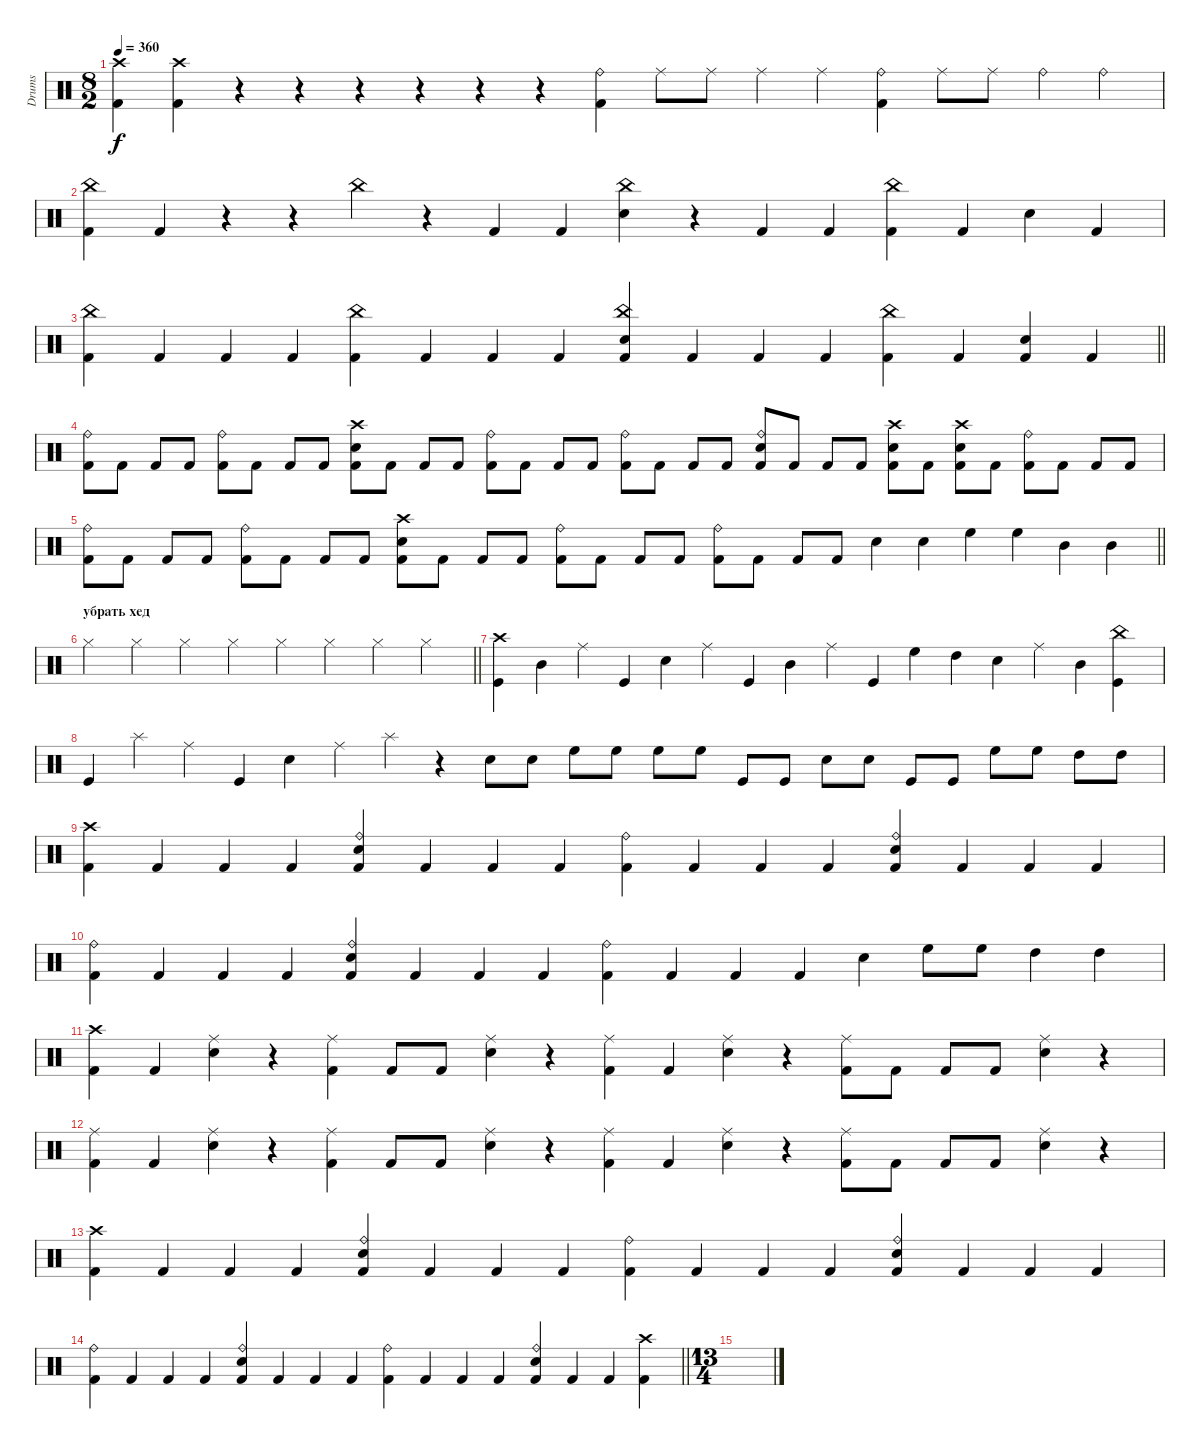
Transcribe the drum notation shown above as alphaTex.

\track ("Drums" "Drums") {mute instrument percussion}
\staff {score}
\articulation defaults
\ts (8 2)
\tempo 360
\clef neutral
\ks c
("Crash high (hit)" "Kick (hit) 2").4{dy f} ("Crash high (hit)" "Kick (hit) 2").4 r.4 r.4 r.4 r.4 r.4 r.4 ("Ride (bell)" "Kick (hit) 2").4 "Ride (middle)".8 "Ride (middle)".8 "Ride (middle)".4 "Ride (middle)".4 ("Ride (bell)" "Kick (hit) 2").4 "Ride (middle)".8 "Ride (middle)".8 "Ride (bell)".4 "Ride (bell)".4 |
("Kick (hit) 2" "China (hit)").4 "Kick (hit) 2".4 r.4 r.4 "China (hit)".4 r.4 "Kick (hit) 2".4 "Kick (hit) 2".4 ("Snare (hit) 2" "China (hit)").4 r.4 "Kick (hit) 2".4 "Kick (hit) 2".4 ("Kick (hit) 2" "China (hit)").4 "Kick (hit) 2".4 "Snare (hit) 2".4 "Kick (hit) 2".4 |
\barLineRight lightlight
("Kick (hit) 2" "China (hit)").4 "Kick (hit) 2".4 "Kick (hit) 2".4 "Kick (hit) 2".4 ("Kick (hit) 2" "China (hit)").4 "Kick (hit) 2".4 "Kick (hit) 2".4 "Kick (hit) 2".4 ("Kick (hit) 2" "Snare (hit) 2" "China (hit)").4 "Kick (hit) 2".4 "Kick (hit) 2".4 "Kick (hit) 2".4 ("Kick (hit) 2" "China (hit)").4 "Kick (hit) 2".4 ("Kick (hit) 2" "Snare (hit) 2").4 "Kick (hit) 2".4 |
("Ride (bell)" "Kick (hit) 2").8 "Kick (hit) 2".8 "Kick (hit) 2".8 "Kick (hit) 2".8 ("Ride (bell)" "Kick (hit) 2").8 "Kick (hit) 2".8 "Kick (hit) 2".8 "Kick (hit) 2".8 ("Crash high (hit)" "Snare (hit) 2" "Kick (hit) 2").8 "Kick (hit) 2".8 "Kick (hit) 2".8 "Kick (hit) 2".8 ("Ride (bell)" "Kick (hit) 2").8 "Kick (hit) 2".8 "Kick (hit) 2".8 "Kick (hit) 2".8 ("Ride (bell)" "Kick (hit) 2").8 "Kick (hit) 2".8 "Kick (hit) 2".8 "Kick (hit) 2".8 ("Ride (bell)" "Snare (hit) 2" "Kick (hit) 2").8 "Kick (hit) 2".8 "Kick (hit) 2".8 "Kick (hit) 2".8 ("Crash high (hit)" "Snare (hit) 2" "Kick (hit) 2").8 "Kick (hit) 2".8 ("Crash high (hit)" "Snare (hit) 2" "Kick (hit) 2").8 "Kick (hit) 2".8 ("Ride (bell)" "Kick (hit) 2").8 "Kick (hit) 2".8 "Kick (hit) 2".8 "Kick (hit) 2".8 |
\barLineRight lightlight
("Ride (bell)" "Kick (hit) 2").8 "Kick (hit) 2".8 "Kick (hit) 2".8 "Kick (hit) 2".8 ("Ride (bell)" "Kick (hit) 2").8 "Kick (hit) 2".8 "Kick (hit) 2".8 "Kick (hit) 2".8 ("Crash high (hit)" "Snare (hit) 2" "Kick (hit) 2").8 "Kick (hit) 2".8 "Kick (hit) 2".8 "Kick (hit) 2".8 ("Ride (bell)" "Kick (hit) 2").8 "Kick (hit) 2".8 "Kick (hit) 2".8 "Kick (hit) 2".8 ("Ride (bell)" "Kick (hit) 2").8 "Kick (hit) 2".8 "Kick (hit) 2".8 "Kick (hit) 2".8 "Snare (hit) 2".4 "Snare (hit) 2".4 "High Floor Tom (hit)".4 "High Floor Tom (hit)".4 "Mid Tom (hit)".4 "Mid Tom (hit)".4 |
\section ("" "убрать хед")
\barLineRight lightlight "Hi-Hat (closed)".2 "Hi-Hat (closed)".2 "Hi-Hat (closed)".2 "Hi-Hat (closed)".2 "Hi-Hat (closed)".2 "Hi-Hat (closed)".2 "Hi-Hat (closed)".2 "Hi-Hat (closed)".2
|
\section ("" "")
("Kick (hit)" "Crash high (hit)").4 "Mid Tom (hit)".4 "Ride (middle)".4 "Kick (hit)".4 "Snare (hit) 2".4 "Ride (middle)".4 "Kick (hit)".4 "Mid Tom (hit)".4 "Ride (middle)".4 "Kick (hit)".4 "High Floor Tom (hit)".4 "High Tom (hit)".4 "Snare (hit) 2".4 "Ride (middle)".4 "Mid Tom (hit)".4 ("China (hit)" "Kick (hit)").4 |
"Kick (hit)".4 "Splash (hit)".4 "Ride (middle)".4 "Kick (hit)".4 "Snare (hit) 2".4 "Ride (middle)".4 "Splash (hit)".4 r.4 "Snare (hit) 2".8 "Snare (hit) 2".8 "High Floor Tom (hit)".8 "High Floor Tom (hit)".8 "High Floor Tom (hit)".8 "High Floor Tom (hit)".8 "Kick (hit)".8 "Kick (hit)".8 "Snare (hit) 2".8 "Snare (hit) 2".8 "Kick (hit)".8 "Kick (hit)".8 "High Floor Tom (hit)".8 "High Floor Tom (hit)".8 "High Tom (hit)".8 "High Tom (hit)".8 |
("Crash high (hit)" "Kick (hit) 2").4 "Kick (hit) 2".4 "Kick (hit) 2".4 "Kick (hit) 2".4 ("Ride (bell)" "Snare (hit) 2" "Kick (hit) 2").4 "Kick (hit) 2".4 "Kick (hit) 2".4 "Kick (hit) 2".4 ("Ride (bell)" "Kick (hit) 2").4 "Kick (hit) 2".4 "Kick (hit) 2".4 "Kick (hit) 2".4 ("Ride (bell)" "Snare (hit) 2" "Kick (hit) 2").4 "Kick (hit) 2".4 "Kick (hit) 2".4 "Kick (hit) 2".4 |
("Ride (bell)" "Kick (hit) 2").4 "Kick (hit) 2".4 "Kick (hit) 2".4 "Kick (hit) 2".4 ("Ride (bell)" "Snare (hit) 2" "Kick (hit) 2").4 "Kick (hit) 2".4 "Kick (hit) 2".4 "Kick (hit) 2".4 ("Ride (bell)" "Kick (hit) 2").4 "Kick (hit) 2".4 "Kick (hit) 2".4 "Kick (hit) 2".4 "Snare (hit) 2".4 "High Floor Tom (hit)".8 "High Floor Tom (hit)".8 "High Tom (hit)".4 "High Tom (hit)".4 |
("Crash high (hit)" "Kick (hit) 2").4 "Kick (hit) 2".4 ("Ride (middle)" "Snare (hit) 2").4 r.4 ("Ride (middle)" "Kick (hit) 2").4 "Kick (hit) 2".8 "Kick (hit) 2".8 ("Ride (middle)" "Snare (hit) 2").4 r.4 ("Ride (middle)" "Kick (hit) 2").4 "Kick (hit) 2".4 ("Ride (middle)" "Snare (hit) 2").4 r.4 ("Ride (middle)" "Kick (hit) 2").8 "Kick (hit) 2".8 "Kick (hit) 2".8 "Kick (hit) 2".8 ("Ride (middle)" "Snare (hit) 2").4 r.4 |
("Ride (middle)" "Kick (hit) 2").4 "Kick (hit) 2".4 ("Ride (middle)" "Snare (hit) 2").4 r.4 ("Ride (middle)" "Kick (hit) 2").4 "Kick (hit) 2".8 "Kick (hit) 2".8 ("Ride (middle)" "Snare (hit) 2").4 r.4 ("Ride (middle)" "Kick (hit) 2").4 "Kick (hit) 2".4 ("Ride (middle)" "Snare (hit) 2").4 r.4 ("Ride (middle)" "Kick (hit) 2").8 "Kick (hit) 2".8 "Kick (hit) 2".8 "Kick (hit) 2".8 ("Ride (middle)" "Snare (hit) 2").4 r.4 |
("Crash high (hit)" "Kick (hit) 2").4 "Kick (hit) 2".4 "Kick (hit) 2".4 "Kick (hit) 2".4 ("Ride (bell)" "Snare (hit) 2" "Kick (hit) 2").4 "Kick (hit) 2".4 "Kick (hit) 2".4 "Kick (hit) 2".4 ("Ride (bell)" "Kick (hit) 2").4 "Kick (hit) 2".4 "Kick (hit) 2".4 "Kick (hit) 2".4 ("Ride (bell)" "Snare (hit) 2" "Kick (hit) 2").4 "Kick (hit) 2".4 "Kick (hit) 2".4 "Kick (hit) 2".4 |
\barLineRight lightlight
("Ride (bell)" "Kick (hit) 2").4 "Kick (hit) 2".4 "Kick (hit) 2".4 "Kick (hit) 2".4 ("Ride (bell)" "Snare (hit) 2" "Kick (hit) 2").4 "Kick (hit) 2".4 "Kick (hit) 2".4 "Kick (hit) 2".4 ("Ride (bell)" "Kick (hit) 2").4 "Kick (hit) 2".4 "Kick (hit) 2".4 "Kick (hit) 2".4 ("Ride (bell)" "Snare (hit) 2" "Kick (hit) 2").4 "Kick (hit) 2".4 "Kick (hit) 2".4 ("Crash high (hit)" "Kick (hit) 2").4 |
\ts (13 4)
